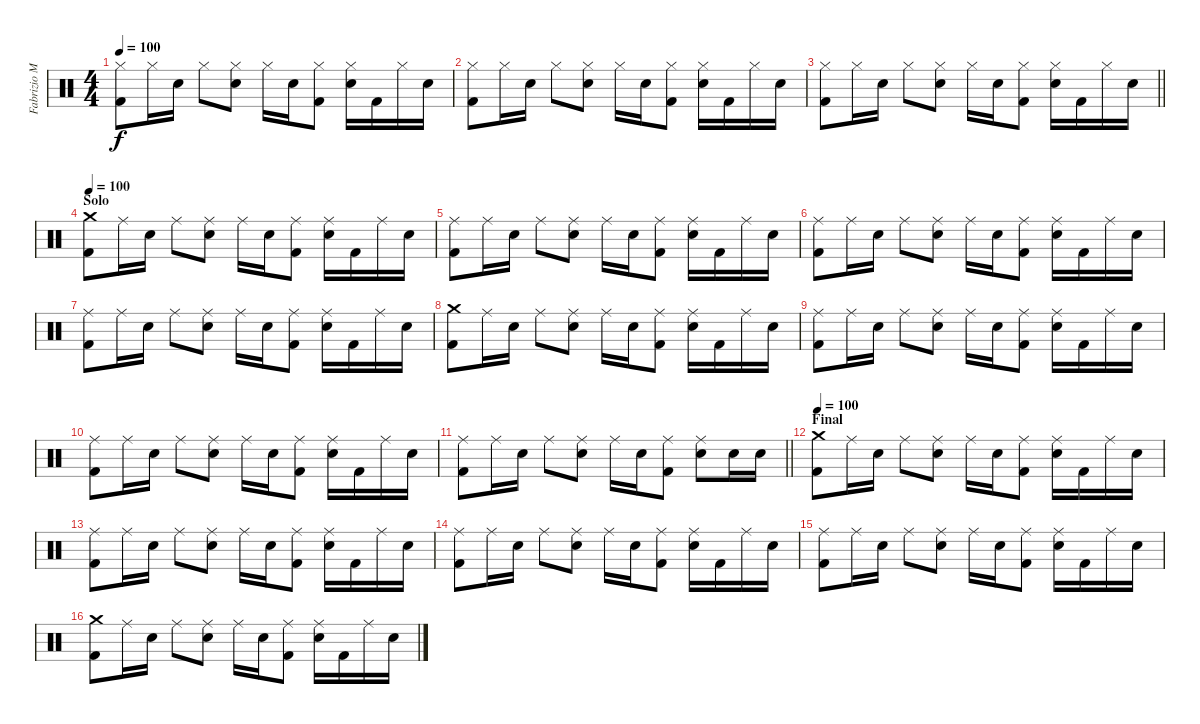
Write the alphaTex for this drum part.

\track ("Fabrizio Moretti" "Fabrizio M") {instrument percussion}
\staff {score}
\articulation defaults
\ts (4 4)
\tempo 100
\clef neutral
\ks c
("Hi-Hat (closed)" "Kick (hit) 2").8{dy f} "Hi-Hat (closed)".16 "Snare (hit) 2".16 "Hi-Hat (closed)".8 ("Hi-Hat (closed)" "Snare (hit) 2").8 "Hi-Hat (closed)".16 "Snare (hit) 2".16 ("Hi-Hat (closed)" "Kick (hit) 2").8 ("Hi-Hat (closed)" "Snare (hit) 2").16 "Kick (hit) 2".16 "Hi-Hat (closed)".16 "Snare (hit) 2".16 |
("Hi-Hat (closed)" "Kick (hit) 2").8 "Hi-Hat (closed)".16 "Snare (hit) 2".16 "Hi-Hat (closed)".8 ("Hi-Hat (closed)" "Snare (hit) 2").8 "Hi-Hat (closed)".16 "Snare (hit) 2".16 ("Hi-Hat (closed)" "Kick (hit) 2").8 ("Hi-Hat (closed)" "Snare (hit) 2").16 "Kick (hit) 2".16 "Hi-Hat (closed)".16 "Snare (hit) 2".16 |
\barLineRight lightlight
("Hi-Hat (closed)" "Kick (hit) 2").8 "Hi-Hat (closed)".16 "Snare (hit) 2".16 "Hi-Hat (closed)".8 ("Hi-Hat (closed)" "Snare (hit) 2").8 "Hi-Hat (closed)".16 "Snare (hit) 2".16 ("Hi-Hat (closed)" "Kick (hit) 2").8 ("Hi-Hat (closed)" "Snare (hit) 2").16 "Kick (hit) 2".16 "Hi-Hat (closed)".16 "Snare (hit) 2".16 |
\section ("" "Solo")
\tempo 100
("Crash medium (hit)" "Kick (hit) 2").8 "Ride (middle)".16 "Snare (hit) 2".16 "Ride (middle)".8 ("Ride (middle)" "Snare (hit) 2").8 "Ride (middle)".16 "Snare (hit) 2".16 ("Ride (middle)" "Kick (hit) 2").8 ("Ride (middle)" "Snare (hit) 2").16 "Kick (hit) 2".16 "Ride (middle)".16 "Snare (hit) 2".16 |
("Ride (middle)" "Kick (hit) 2").8 "Ride (middle)".16 "Snare (hit) 2".16 "Ride (middle)".8 ("Ride (middle)" "Snare (hit) 2").8 "Ride (middle)".16 "Snare (hit) 2".16 ("Ride (middle)" "Kick (hit) 2").8 ("Ride (middle)" "Snare (hit) 2").16 "Kick (hit) 2".16 "Ride (middle)".16 "Snare (hit) 2".16 |
("Ride (middle)" "Kick (hit) 2").8 "Ride (middle)".16 "Snare (hit) 2".16 "Ride (middle)".8 ("Ride (middle)" "Snare (hit) 2").8 "Ride (middle)".16 "Snare (hit) 2".16 ("Ride (middle)" "Kick (hit) 2").8 ("Ride (middle)" "Snare (hit) 2").16 "Kick (hit) 2".16 "Ride (middle)".16 "Snare (hit) 2".16 |
("Ride (middle)" "Kick (hit) 2").8 "Ride (middle)".16 "Snare (hit) 2".16 "Ride (middle)".8 ("Ride (middle)" "Snare (hit) 2").8 "Ride (middle)".16 "Snare (hit) 2".16 ("Ride (middle)" "Kick (hit) 2").8 ("Ride (middle)" "Snare (hit) 2").16 "Kick (hit) 2".16 "Ride (middle)".16 "Snare (hit) 2".16 |
("Crash medium (hit)" "Kick (hit) 2").8 "Ride (middle)".16 "Snare (hit) 2".16 "Ride (middle)".8 ("Ride (middle)" "Snare (hit) 2").8 "Ride (middle)".16 "Snare (hit) 2".16 ("Ride (middle)" "Kick (hit) 2").8 ("Ride (middle)" "Snare (hit) 2").16 "Kick (hit) 2".16 "Ride (middle)".16 "Snare (hit) 2".16 |
("Ride (middle)" "Kick (hit) 2").8 "Ride (middle)".16 "Snare (hit) 2".16 "Ride (middle)".8 ("Ride (middle)" "Snare (hit) 2").8 "Ride (middle)".16 "Snare (hit) 2".16 ("Ride (middle)" "Kick (hit) 2").8 ("Ride (middle)" "Snare (hit) 2").16 "Kick (hit) 2".16 "Ride (middle)".16 "Snare (hit) 2".16 |
("Ride (middle)" "Kick (hit) 2").8 "Ride (middle)".16 "Snare (hit) 2".16 "Ride (middle)".8 ("Ride (middle)" "Snare (hit) 2").8 "Ride (middle)".16 "Snare (hit) 2".16 ("Ride (middle)" "Kick (hit) 2").8 ("Ride (middle)" "Snare (hit) 2").16 "Kick (hit) 2".16 "Ride (middle)".16 "Snare (hit) 2".16 |
\barLineRight lightlight
("Ride (middle)" "Kick (hit) 2").8 "Ride (middle)".16 "Snare (hit) 2".16 "Ride (middle)".8 ("Ride (middle)" "Snare (hit) 2").8 "Ride (middle)".16 "Snare (hit) 2".16 ("Ride (middle)" "Kick (hit) 2").8 ("Ride (middle)" "Snare (hit) 2").8 "Snare (hit) 2".16 "Snare (hit) 2".16 |
\section ("" "Final")
\tempo 100
("Crash medium (hit)" "Kick (hit) 2").8 "Ride (middle)".16 "Snare (hit) 2".16 "Ride (middle)".8 ("Ride (middle)" "Snare (hit) 2").8 "Ride (middle)".16 "Snare (hit) 2".16 ("Ride (middle)" "Kick (hit) 2").8 ("Ride (middle)" "Snare (hit) 2").16 "Kick (hit) 2".16 "Ride (middle)".16 "Snare (hit) 2".16 |
("Ride (middle)" "Kick (hit) 2").8 "Ride (middle)".16 "Snare (hit) 2".16 "Ride (middle)".8 ("Ride (middle)" "Snare (hit) 2").8 "Ride (middle)".16 "Snare (hit) 2".16 ("Ride (middle)" "Kick (hit) 2").8 ("Ride (middle)" "Snare (hit) 2").16 "Kick (hit) 2".16 "Ride (middle)".16 "Snare (hit) 2".16 |
("Ride (middle)" "Kick (hit) 2").8 "Ride (middle)".16 "Snare (hit) 2".16 "Ride (middle)".8 ("Ride (middle)" "Snare (hit) 2").8 "Ride (middle)".16 "Snare (hit) 2".16 ("Ride (middle)" "Kick (hit) 2").8 ("Ride (middle)" "Snare (hit) 2").16 "Kick (hit) 2".16 "Ride (middle)".16 "Snare (hit) 2".16 |
("Ride (middle)" "Kick (hit) 2").8 "Ride (middle)".16 "Snare (hit) 2".16 "Ride (middle)".8 ("Ride (middle)" "Snare (hit) 2").8 "Ride (middle)".16 "Snare (hit) 2".16 ("Ride (middle)" "Kick (hit) 2").8 ("Ride (middle)" "Snare (hit) 2").16 "Kick (hit) 2".16 "Ride (middle)".16 "Snare (hit) 2".16 |
("Crash medium (hit)" "Kick (hit) 2").8 "Ride (middle)".16 "Snare (hit) 2".16 "Ride (middle)".8 ("Ride (middle)" "Snare (hit) 2").8 "Ride (middle)".16 "Snare (hit) 2".16 ("Ride (middle)" "Kick (hit) 2").8 ("Ride (middle)" "Snare (hit) 2").16 "Kick (hit) 2".16 "Ride (middle)".16 "Snare (hit) 2".16
